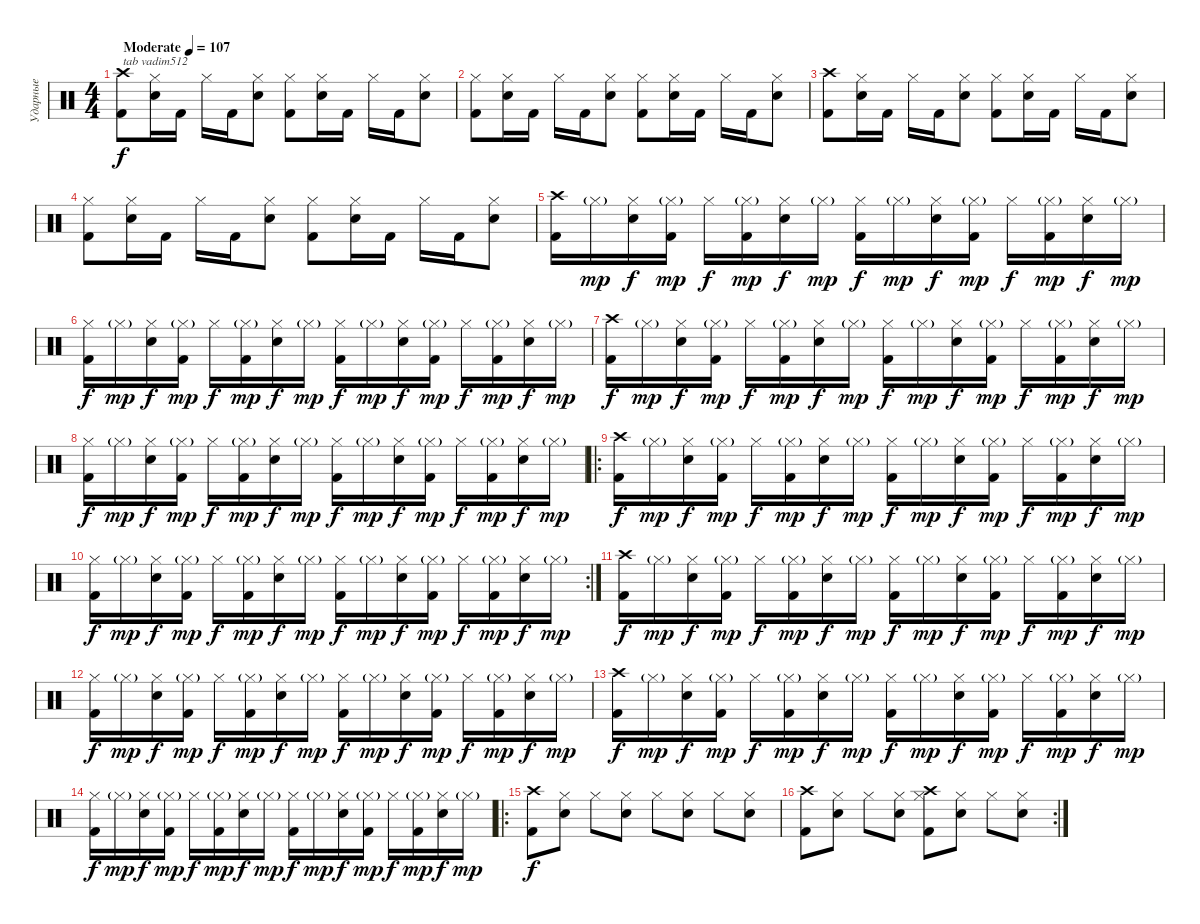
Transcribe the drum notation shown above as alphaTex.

\track ("Ударные" "Ударные") {instrument percussion}
\staff {score}
\articulation defaults
\ts (4 4)
\tempo (107 "Moderate")
\clef neutral
\ks c
("Kick (hit) 2" "Crash high (hit)").8{txt "tab vadim512" dy f} ("Electric Snare (hit)" "Hi-Hat (closed)").16 "Kick (hit) 2".16 "Hi-Hat (closed)".16 "Kick (hit) 2".16 ("Electric Snare (hit)" "Hi-Hat (closed)").8 ("Kick (hit) 2" "Hi-Hat (closed)").8 ("Electric Snare (hit)" "Hi-Hat (closed)").16 "Kick (hit) 2".16 "Hi-Hat (closed)".16 "Kick (hit) 2".16 ("Electric Snare (hit)" "Hi-Hat (closed)").8 |
("Kick (hit) 2" "Hi-Hat (closed)").8 ("Electric Snare (hit)" "Hi-Hat (closed)").16 "Kick (hit) 2".16 "Hi-Hat (closed)".16 "Kick (hit) 2".16 ("Electric Snare (hit)" "Hi-Hat (closed)").8 ("Kick (hit) 2" "Hi-Hat (closed)").8 ("Electric Snare (hit)" "Hi-Hat (closed)").16 "Kick (hit) 2".16 "Hi-Hat (closed)".16 "Kick (hit) 2".16 ("Electric Snare (hit)" "Hi-Hat (closed)").8 |
("Kick (hit) 2" "Crash high (hit)").8 ("Electric Snare (hit)" "Hi-Hat (closed)").16 "Kick (hit) 2".16 "Hi-Hat (closed)".16 "Kick (hit) 2".16 ("Electric Snare (hit)" "Hi-Hat (closed)").8 ("Kick (hit) 2" "Hi-Hat (closed)").8 ("Electric Snare (hit)" "Hi-Hat (closed)").16 "Kick (hit) 2".16 "Hi-Hat (closed)".16 "Kick (hit) 2".16 ("Electric Snare (hit)" "Hi-Hat (closed)").8 |
("Kick (hit) 2" "Hi-Hat (closed)").8 ("Electric Snare (hit)" "Hi-Hat (closed)").16 "Kick (hit) 2".16 "Hi-Hat (closed)".16 "Kick (hit) 2".16 ("Electric Snare (hit)" "Hi-Hat (closed)").8 ("Kick (hit) 2" "Hi-Hat (closed)").8 ("Electric Snare (hit)" "Hi-Hat (closed)").16 "Kick (hit) 2".16 "Hi-Hat (closed)".16 "Kick (hit) 2".16 ("Electric Snare (hit)" "Hi-Hat (closed)").8 |
("Kick (hit) 2" "Crash high (hit)").16 "Hi-Hat (closed)"{g}.16{dy mp} ("Electric Snare (hit)" "Hi-Hat (closed)").16{dy f} ("Kick (hit) 2" "Hi-Hat (closed)"{g}).16{dy mp} "Hi-Hat (closed)".16{dy f} ("Kick (hit) 2" "Hi-Hat (closed)"{g}).16{dy mp} ("Electric Snare (hit)" "Hi-Hat (closed)").16{dy f} "Hi-Hat (closed)"{g}.16{dy mp} ("Kick (hit) 2" "Hi-Hat (closed)").16{dy f} "Hi-Hat (closed)"{g}.16{dy mp} ("Electric Snare (hit)" "Hi-Hat (closed)").16{dy f} ("Kick (hit) 2" "Hi-Hat (closed)"{g}).16{dy mp} "Hi-Hat (closed)".16{dy f} ("Kick (hit) 2" "Hi-Hat (closed)"{g}).16{dy mp} ("Electric Snare (hit)" "Hi-Hat (closed)").16{dy f} "Hi-Hat (closed)"{g}.16{dy mp} |
("Kick (hit) 2" "Hi-Hat (closed)").16{dy f} "Hi-Hat (closed)"{g}.16{dy mp} ("Electric Snare (hit)" "Hi-Hat (closed)").16{dy f} ("Kick (hit) 2" "Hi-Hat (closed)"{g}).16{dy mp} "Hi-Hat (closed)".16{dy f} ("Kick (hit) 2" "Hi-Hat (closed)"{g}).16{dy mp} ("Electric Snare (hit)" "Hi-Hat (closed)").16{dy f} "Hi-Hat (closed)"{g}.16{dy mp} ("Kick (hit) 2" "Hi-Hat (closed)").16{dy f} "Hi-Hat (closed)"{g}.16{dy mp} ("Electric Snare (hit)" "Hi-Hat (closed)").16{dy f} ("Kick (hit) 2" "Hi-Hat (closed)"{g}).16{dy mp} "Hi-Hat (closed)".16{dy f} ("Kick (hit) 2" "Hi-Hat (closed)"{g}).16{dy mp} ("Electric Snare (hit)" "Hi-Hat (closed)").16{dy f} "Hi-Hat (closed)"{g}.16{dy mp} |
("Kick (hit) 2" "Crash high (hit)").16{dy f} "Hi-Hat (closed)"{g}.16{dy mp} ("Electric Snare (hit)" "Hi-Hat (closed)").16{dy f} ("Kick (hit) 2" "Hi-Hat (closed)"{g}).16{dy mp} "Hi-Hat (closed)".16{dy f} ("Kick (hit) 2" "Hi-Hat (closed)"{g}).16{dy mp} ("Electric Snare (hit)" "Hi-Hat (closed)").16{dy f} "Hi-Hat (closed)"{g}.16{dy mp} ("Kick (hit) 2" "Hi-Hat (closed)").16{dy f} "Hi-Hat (closed)"{g}.16{dy mp} ("Electric Snare (hit)" "Hi-Hat (closed)").16{dy f} ("Kick (hit) 2" "Hi-Hat (closed)"{g}).16{dy mp} "Hi-Hat (closed)".16{dy f} ("Kick (hit) 2" "Hi-Hat (closed)"{g}).16{dy mp} ("Electric Snare (hit)" "Hi-Hat (closed)").16{dy f} "Hi-Hat (closed)"{g}.16{dy mp} |
("Kick (hit) 2" "Hi-Hat (closed)").16{dy f} "Hi-Hat (closed)"{g}.16{dy mp} ("Electric Snare (hit)" "Hi-Hat (closed)").16{dy f} ("Kick (hit) 2" "Hi-Hat (closed)"{g}).16{dy mp} "Hi-Hat (closed)".16{dy f} ("Kick (hit) 2" "Hi-Hat (closed)"{g}).16{dy mp} ("Electric Snare (hit)" "Hi-Hat (closed)").16{dy f} "Hi-Hat (closed)"{g}.16{dy mp} ("Kick (hit) 2" "Hi-Hat (closed)").16{dy f} "Hi-Hat (closed)"{g}.16{dy mp} ("Electric Snare (hit)" "Hi-Hat (closed)").16{dy f} ("Kick (hit) 2" "Hi-Hat (closed)"{g}).16{dy mp} "Hi-Hat (closed)".16{dy f} ("Kick (hit) 2" "Hi-Hat (closed)"{g}).16{dy mp} ("Electric Snare (hit)" "Hi-Hat (closed)").16{dy f} "Hi-Hat (closed)"{g}.16{dy mp} |
\ro
("Kick (hit) 2" "Crash high (hit)").16{dy f} "Hi-Hat (closed)"{g}.16{dy mp} ("Electric Snare (hit)" "Hi-Hat (closed)").16{dy f} ("Kick (hit) 2" "Hi-Hat (closed)"{g}).16{dy mp} "Hi-Hat (closed)".16{dy f} ("Kick (hit) 2" "Hi-Hat (closed)"{g}).16{dy mp} ("Electric Snare (hit)" "Hi-Hat (closed)").16{dy f} "Hi-Hat (closed)"{g}.16{dy mp} ("Kick (hit) 2" "Hi-Hat (closed)").16{dy f} "Hi-Hat (closed)"{g}.16{dy mp} ("Electric Snare (hit)" "Hi-Hat (closed)").16{dy f} ("Kick (hit) 2" "Hi-Hat (closed)"{g}).16{dy mp} "Hi-Hat (closed)".16{dy f} ("Kick (hit) 2" "Hi-Hat (closed)"{g}).16{dy mp} ("Electric Snare (hit)" "Hi-Hat (closed)").16{dy f} "Hi-Hat (closed)"{g}.16{dy mp} |
\rc 2
("Kick (hit) 2" "Hi-Hat (closed)").16{dy f} "Hi-Hat (closed)"{g}.16{dy mp} ("Electric Snare (hit)" "Hi-Hat (closed)").16{dy f} ("Kick (hit) 2" "Hi-Hat (closed)"{g}).16{dy mp} "Hi-Hat (closed)".16{dy f} ("Kick (hit) 2" "Hi-Hat (closed)"{g}).16{dy mp} ("Electric Snare (hit)" "Hi-Hat (closed)").16{dy f} "Hi-Hat (closed)"{g}.16{dy mp} ("Kick (hit) 2" "Hi-Hat (closed)").16{dy f} "Hi-Hat (closed)"{g}.16{dy mp} ("Electric Snare (hit)" "Hi-Hat (closed)").16{dy f} ("Kick (hit) 2" "Hi-Hat (closed)"{g}).16{dy mp} "Hi-Hat (closed)".16{dy f} ("Kick (hit) 2" "Hi-Hat (closed)"{g}).16{dy mp} ("Electric Snare (hit)" "Hi-Hat (closed)").16{dy f} "Hi-Hat (closed)"{g}.16{dy mp} |
("Kick (hit) 2" "Crash high (hit)").16{dy f} "Hi-Hat (closed)"{g}.16{dy mp} ("Electric Snare (hit)" "Hi-Hat (closed)").16{dy f} ("Kick (hit) 2" "Hi-Hat (closed)"{g}).16{dy mp} "Hi-Hat (closed)".16{dy f} ("Kick (hit) 2" "Hi-Hat (closed)"{g}).16{dy mp} ("Electric Snare (hit)" "Hi-Hat (closed)").16{dy f} "Hi-Hat (closed)"{g}.16{dy mp} ("Kick (hit) 2" "Hi-Hat (closed)").16{dy f} "Hi-Hat (closed)"{g}.16{dy mp} ("Electric Snare (hit)" "Hi-Hat (closed)").16{dy f} ("Kick (hit) 2" "Hi-Hat (closed)"{g}).16{dy mp} "Hi-Hat (closed)".16{dy f} ("Kick (hit) 2" "Hi-Hat (closed)"{g}).16{dy mp} ("Electric Snare (hit)" "Hi-Hat (closed)").16{dy f} "Hi-Hat (closed)"{g}.16{dy mp} |
("Kick (hit) 2" "Hi-Hat (closed)").16{dy f} "Hi-Hat (closed)"{g}.16{dy mp} ("Electric Snare (hit)" "Hi-Hat (closed)").16{dy f} ("Kick (hit) 2" "Hi-Hat (closed)"{g}).16{dy mp} "Hi-Hat (closed)".16{dy f} ("Kick (hit) 2" "Hi-Hat (closed)"{g}).16{dy mp} ("Electric Snare (hit)" "Hi-Hat (closed)").16{dy f} "Hi-Hat (closed)"{g}.16{dy mp} ("Kick (hit) 2" "Hi-Hat (closed)").16{dy f} "Hi-Hat (closed)"{g}.16{dy mp} ("Electric Snare (hit)" "Hi-Hat (closed)").16{dy f} ("Kick (hit) 2" "Hi-Hat (closed)"{g}).16{dy mp} "Hi-Hat (closed)".16{dy f} ("Kick (hit) 2" "Hi-Hat (closed)"{g}).16{dy mp} ("Electric Snare (hit)" "Hi-Hat (closed)").16{dy f} "Hi-Hat (closed)"{g}.16{dy mp} |
("Kick (hit) 2" "Crash high (hit)").16{dy f} "Hi-Hat (closed)"{g}.16{dy mp} ("Electric Snare (hit)" "Hi-Hat (closed)").16{dy f} ("Kick (hit) 2" "Hi-Hat (closed)"{g}).16{dy mp} "Hi-Hat (closed)".16{dy f} ("Kick (hit) 2" "Hi-Hat (closed)"{g}).16{dy mp} ("Electric Snare (hit)" "Hi-Hat (closed)").16{dy f} "Hi-Hat (closed)"{g}.16{dy mp} ("Kick (hit) 2" "Hi-Hat (closed)").16{dy f} "Hi-Hat (closed)"{g}.16{dy mp} ("Electric Snare (hit)" "Hi-Hat (closed)").16{dy f} ("Kick (hit) 2" "Hi-Hat (closed)"{g}).16{dy mp} "Hi-Hat (closed)".16{dy f} ("Kick (hit) 2" "Hi-Hat (closed)"{g}).16{dy mp} ("Electric Snare (hit)" "Hi-Hat (closed)").16{dy f} "Hi-Hat (closed)"{g}.16{dy mp} |
("Kick (hit) 2" "Hi-Hat (closed)").16{dy f} "Hi-Hat (closed)"{g}.16{dy mp} ("Electric Snare (hit)" "Hi-Hat (closed)").16{dy f} ("Kick (hit) 2" "Hi-Hat (closed)"{g}).16{dy mp} "Hi-Hat (closed)".16{dy f} ("Kick (hit) 2" "Hi-Hat (closed)"{g}).16{dy mp} ("Electric Snare (hit)" "Hi-Hat (closed)").16{dy f} "Hi-Hat (closed)"{g}.16{dy mp} ("Kick (hit) 2" "Hi-Hat (closed)").16{dy f} "Hi-Hat (closed)"{g}.16{dy mp} ("Electric Snare (hit)" "Hi-Hat (closed)").16{dy f} ("Kick (hit) 2" "Hi-Hat (closed)"{g}).16{dy mp} "Hi-Hat (closed)".16{dy f} ("Kick (hit) 2" "Hi-Hat (closed)"{g}).16{dy mp} ("Electric Snare (hit)" "Hi-Hat (closed)").16{dy f} "Hi-Hat (closed)"{g}.16{dy mp} |
\ro
("Kick (hit) 2" "Crash high (hit)").8{dy f} ("Electric Snare (hit)" "Hi-Hat (closed)").8 "Hi-Hat (closed)".8 ("Electric Snare (hit)" "Hi-Hat (closed)").8 "Hi-Hat (closed)".8 ("Electric Snare (hit)" "Hi-Hat (closed)").8 "Hi-Hat (closed)".8 ("Electric Snare (hit)" "Hi-Hat (closed)").8 |
\rc 2
("Kick (hit) 2" "Crash high (hit)").8 ("Electric Snare (hit)" "Hi-Hat (closed)").8 "Hi-Hat (closed)".8 ("Electric Snare (hit)" "Hi-Hat (closed)").8 ("Kick (hit) 2" "Hi-Hat (closed)" "Crash high (hit)").8 ("Electric Snare (hit)" "Hi-Hat (closed)").8 "Hi-Hat (closed)".8 ("Electric Snare (hit)" "Hi-Hat (closed)").8
